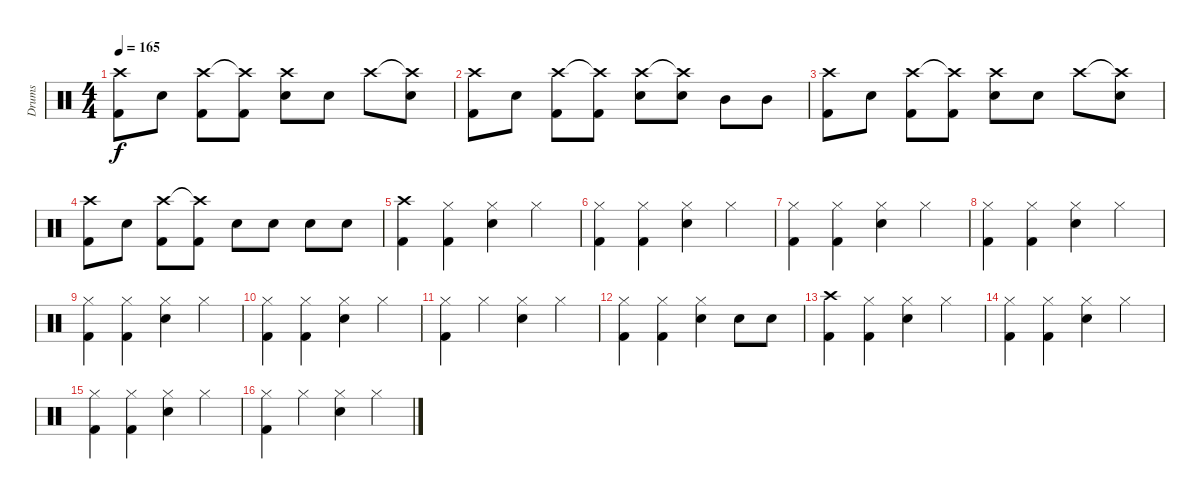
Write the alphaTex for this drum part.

\track ("Drums" "Drums") {instrument percussion}
\staff {score}
\articulation defaults
\ts (4 4)
\tempo 165
\clef neutral
\ks c
("Crash high (hit)" "Kick (hit) 2").8{dy f} "Snare (hit) 2".8 ("Crash high (hit)" "Kick (hit) 2").8 ("Crash high (hit)"{t} "Kick (hit) 2").8 ("Crash high (hit)" "Snare (hit) 2").8 "Snare (hit) 2".8 "Crash high (hit)".8 ("Crash high (hit)"{t} "Snare (hit) 2").8 |
("Crash high (hit)" "Kick (hit) 2").8 "Snare (hit) 2".8 ("Crash high (hit)" "Kick (hit) 2").8 ("Crash high (hit)"{t} "Kick (hit) 2").8 ("Crash high (hit)" "Snare (hit) 2").8 ("Crash high (hit)"{t} "Snare (hit) 2").8 "Mid Tom (hit)".8 "Mid Tom (hit)".8 |
("Crash high (hit)" "Kick (hit) 2").8 "Snare (hit) 2".8 ("Crash high (hit)" "Kick (hit) 2").8 ("Crash high (hit)"{t} "Kick (hit) 2").8 ("Crash high (hit)" "Snare (hit) 2").8 "Snare (hit) 2".8 "Crash high (hit)".8 ("Crash high (hit)"{t} "Snare (hit) 2").8 |
("Crash high (hit)" "Kick (hit) 2").8 "Snare (hit) 2".8 ("Crash high (hit)" "Kick (hit) 2").8 ("Crash high (hit)"{t} "Kick (hit) 2").8 "Snare (hit) 2".8 "Snare (hit) 2".8 "Snare (hit) 2".8 "Snare (hit) 2".8 |
("Crash high (hit)" "Kick (hit) 2").4 ("Hi-Hat (closed)" "Kick (hit) 2").4 ("Hi-Hat (closed)" "Snare (hit) 2").4 "Hi-Hat (closed)".4 |
("Hi-Hat (closed)" "Kick (hit) 2").4 ("Hi-Hat (closed)" "Kick (hit) 2").4 ("Hi-Hat (closed)" "Snare (hit) 2").4 "Hi-Hat (closed)".4 |
("Hi-Hat (closed)" "Kick (hit) 2").4 ("Hi-Hat (closed)" "Kick (hit) 2").4 ("Hi-Hat (closed)" "Snare (hit) 2").4 "Hi-Hat (closed)".4 |
("Hi-Hat (closed)" "Kick (hit) 2").4 ("Hi-Hat (closed)" "Kick (hit) 2").4 ("Hi-Hat (closed)" "Snare (hit) 2").4 "Hi-Hat (closed)".4 |
("Hi-Hat (closed)" "Kick (hit) 2").4 ("Hi-Hat (closed)" "Kick (hit) 2").4 ("Hi-Hat (closed)" "Snare (hit) 2").4 "Hi-Hat (closed)".4 |
("Hi-Hat (closed)" "Kick (hit) 2").4 ("Hi-Hat (closed)" "Kick (hit) 2").4 ("Hi-Hat (closed)" "Snare (hit) 2").4 "Hi-Hat (closed)".4 |
("Hi-Hat (closed)" "Kick (hit) 2").4 "Hi-Hat (closed)".4 ("Hi-Hat (closed)" "Snare (hit) 2").4 "Hi-Hat (closed)".4 |
("Hi-Hat (closed)" "Kick (hit) 2").4 ("Hi-Hat (closed)" "Kick (hit) 2").4 ("Hi-Hat (closed)" "Snare (hit) 2").4 "Snare (hit) 2".8 "Snare (hit) 2".8 |
("Crash high (hit)" "Kick (hit) 2").4 ("Hi-Hat (closed)" "Kick (hit) 2").4 ("Hi-Hat (closed)" "Snare (hit) 2").4 "Hi-Hat (closed)".4 |
("Hi-Hat (closed)" "Kick (hit) 2").4 ("Hi-Hat (closed)" "Kick (hit) 2").4 ("Hi-Hat (closed)" "Snare (hit) 2").4 "Hi-Hat (closed)".4 |
("Hi-Hat (closed)" "Kick (hit) 2").4 ("Hi-Hat (closed)" "Kick (hit) 2").4 ("Hi-Hat (closed)" "Snare (hit) 2").4 "Hi-Hat (closed)".4 |
("Hi-Hat (closed)" "Kick (hit) 2").4 "Hi-Hat (closed)".4 ("Hi-Hat (closed)" "Snare (hit) 2").4 "Hi-Hat (closed)".4
